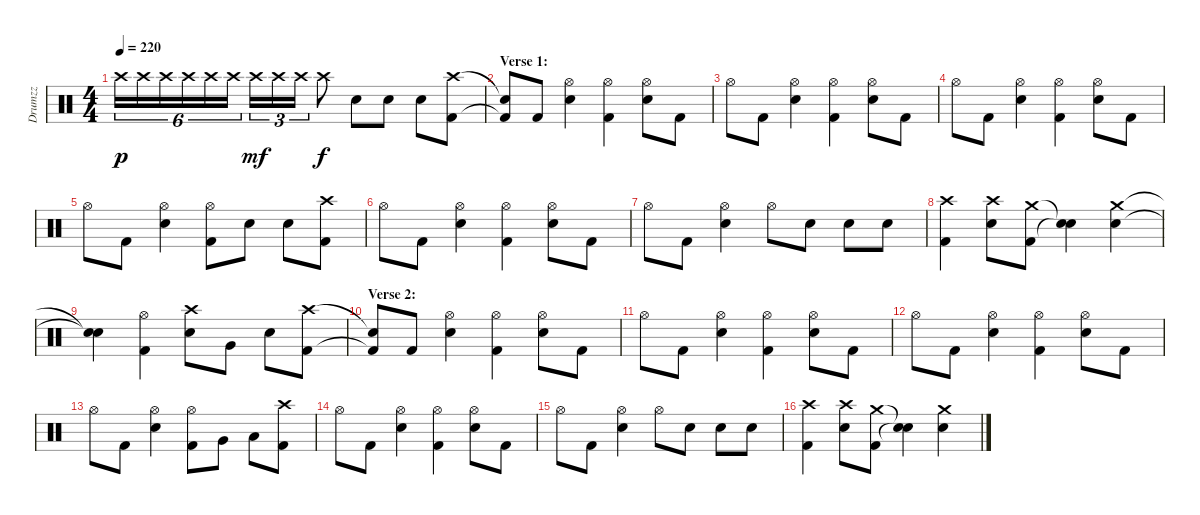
\track ("Drumzz" "Drumzz") {instrument percussion}
\staff {score}
\articulation defaults
\ts (4 4)
\tempo 220
\clef neutral
\ks c "Crash high (hit)".16{tu (6 4) dy p} "Crash high (hit)".16{tu (6 4)} "Crash high (hit)".16{tu (6 4)} "Crash high (hit)".16{tu (6 4)} "Crash high (hit)".16{tu (6 4)} "Crash high (hit)".16{tu (6 4)} "Crash high (hit)".16{tu (3 2) dy mf} "Crash high (hit)".16{tu (3 2)} "Crash high (hit)".16{tu (3 2)} "Crash high (hit)".8{dy f} "Electric Snare (hit)".8 "Electric Snare (hit)".8 "Electric Snare (hit)".8
("Crash high (hit)" "Kick (hit) 2").8 |
\section ("" "Verse 1:")
("Snare (hit)"{t} "Kick (hit) 2"{t}).8 "Kick (hit) 2".8 ("Hi-Hat (open)" "Electric Snare (hit)").4 ("Hi-Hat (open)" "Kick (hit) 2").4 ("Hi-Hat (open)" "Electric Snare (hit)").8 "Kick (hit) 2".8 |
"Hi-Hat (open)".8 "Kick (hit) 2".8 ("Hi-Hat (open)" "Electric Snare (hit)").4 ("Hi-Hat (open)" "Kick (hit) 2").4 ("Hi-Hat (open)" "Electric Snare (hit)").8 "Kick (hit) 2".8 |
"Hi-Hat (open)".8 "Kick (hit) 2".8 ("Hi-Hat (open)" "Electric Snare (hit)").4 ("Hi-Hat (open)" "Kick (hit) 2").4 ("Hi-Hat (open)" "Electric Snare (hit)").8 "Kick (hit) 2".8 |
"Hi-Hat (open)".8 "Kick (hit) 2".8 ("Hi-Hat (open)" "Electric Snare (hit)").4 ("Hi-Hat (open)" "Kick (hit) 2").8 "Electric Snare (hit)".8 "Electric Snare (hit)".8 ("Crash high (hit)" "Kick (hit) 2").8 |
"Hi-Hat (open)".8 "Kick (hit) 2".8 ("Hi-Hat (open)" "Electric Snare (hit)").4 ("Hi-Hat (open)" "Kick (hit) 2").4 ("Hi-Hat (open)" "Electric Snare (hit)").8 "Kick (hit) 2".8 |
"Hi-Hat (open)".8 "Kick (hit) 2".8 ("Hi-Hat (open)" "Electric Snare (hit)").4 "Hi-Hat (open)".8 "Electric Snare (hit)".8 "Electric Snare (hit)".8 "Electric Snare (hit)".8 |
("Crash high (hit)" "Kick (hit) 2").4 ("Crash high (hit)" "Electric Snare (hit)").8 ("Crash medium (hit)" "Kick (hit) 2").8 ("Snare (hit)"{t} "Snare (hit)"{t}).4 ("Crash medium (hit)" "Electric Snare (hit)").4 |
("Snare (hit)"{t} "Snare (hit)"{t}).4 ("Hi-Hat (open)" "Kick (hit) 2").4 ("Crash high (hit)" "Electric Snare (hit)").8 "Very Low Tom (hit)".8 "Electric Snare (hit)".8 ("Crash high (hit)" "Kick (hit) 2").8 |
\section ("" "Verse 2:")
("Snare (hit)"{t} "Kick (hit) 2"{t}).8 "Kick (hit) 2".8 ("Hi-Hat (open)" "Electric Snare (hit)").4 ("Hi-Hat (open)" "Kick (hit) 2").4 ("Hi-Hat (open)" "Electric Snare (hit)").8 "Kick (hit) 2".8 |
"Hi-Hat (open)".8 "Kick (hit) 2".8 ("Hi-Hat (open)" "Electric Snare (hit)").4 ("Hi-Hat (open)" "Kick (hit) 2").4 ("Hi-Hat (open)" "Electric Snare (hit)").8 "Kick (hit) 2".8 |
"Hi-Hat (open)".8 "Kick (hit) 2".8 ("Hi-Hat (open)" "Electric Snare (hit)").4 ("Hi-Hat (open)" "Kick (hit) 2").4 ("Hi-Hat (open)" "Electric Snare (hit)").8 "Kick (hit) 2".8 |
"Hi-Hat (open)".8 "Kick (hit) 2".8 ("Hi-Hat (open)" "Electric Snare (hit)").4 ("Hi-Hat (open)" "Kick (hit) 2").8 "Very Low Tom (hit)".8 "Low Floor Tom (hit)".8 ("Crash high (hit)" "Kick (hit) 2").8 |
"Hi-Hat (open)".8 "Kick (hit) 2".8 ("Hi-Hat (open)" "Electric Snare (hit)").4 ("Hi-Hat (open)" "Kick (hit) 2").4 ("Hi-Hat (open)" "Electric Snare (hit)").8 "Kick (hit) 2".8 |
"Hi-Hat (open)".8 "Kick (hit) 2".8 ("Hi-Hat (open)" "Electric Snare (hit)").4 "Hi-Hat (open)".8 "Electric Snare (hit)".8 "Electric Snare (hit)".8 "Electric Snare (hit)".8 |
("Crash high (hit)" "Kick (hit) 2").4 ("Crash high (hit)" "Electric Snare (hit)").8 ("Crash medium (hit)" "Kick (hit) 2").8 ("Snare (hit)"{t} "Snare (hit)"{t}).4 ("Crash medium (hit)" "Electric Snare (hit)").4
